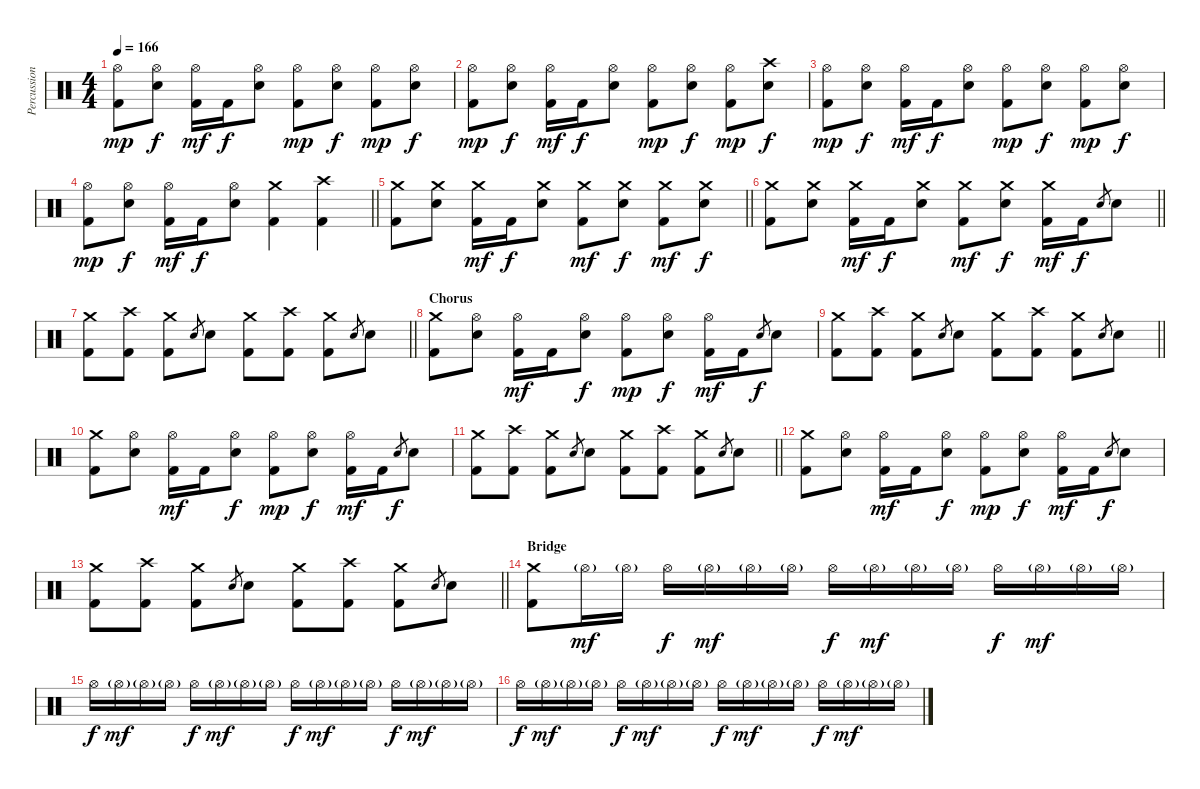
\track ("Percussion" "Percussion") {instrument percussion}
\staff {score}
\articulation defaults
\ts (4 4)
\tempo 166
\clef neutral
\ks c
("Hi-Hat (open)" "Kick (hit) 2").8{dy mp} ("Hi-Hat (open)" "Electric Snare (hit)").8{dy f} ("Hi-Hat (open)" "Kick (hit) 2").16{dy mf} "Kick (hit) 2".16{dy f} ("Hi-Hat (open)" "Electric Snare (hit)").8 ("Hi-Hat (open)" "Kick (hit) 2").8{dy mp} ("Hi-Hat (open)" "Electric Snare (hit)").8{dy f} ("Hi-Hat (open)" "Kick (hit) 2").8{dy mp} ("Hi-Hat (open)" "Electric Snare (hit)").8{dy f} |
("Hi-Hat (open)" "Kick (hit) 2").8{dy mp} ("Hi-Hat (open)" "Electric Snare (hit)").8{dy f} ("Hi-Hat (open)" "Kick (hit) 2").16{dy mf} "Kick (hit) 2".16{dy f} ("Hi-Hat (open)" "Electric Snare (hit)").8 ("Hi-Hat (open)" "Kick (hit) 2").8{dy mp} ("Hi-Hat (open)" "Electric Snare (hit)").8{dy f} ("Hi-Hat (open)" "Kick (hit) 2").8{dy mp} ("Crash high (hit)" "Electric Snare (hit)").8{dy f} |
("Hi-Hat (open)" "Kick (hit) 2").8{dy mp} ("Hi-Hat (open)" "Electric Snare (hit)").8{dy f} ("Hi-Hat (open)" "Kick (hit) 2").16{dy mf} "Kick (hit) 2".16{dy f} ("Hi-Hat (open)" "Electric Snare (hit)").8 ("Hi-Hat (open)" "Kick (hit) 2").8{dy mp} ("Hi-Hat (open)" "Electric Snare (hit)").8{dy f} ("Hi-Hat (open)" "Kick (hit) 2").8{dy mp} ("Hi-Hat (open)" "Electric Snare (hit)").8{dy f} |
\barLineRight lightlight
("Hi-Hat (open)" "Kick (hit) 2").8{dy mp} ("Hi-Hat (open)" "Electric Snare (hit)").8{dy f} ("Hi-Hat (open)" "Kick (hit) 2").16{dy mf} "Kick (hit) 2".16{dy f} ("Hi-Hat (open)" "Electric Snare (hit)").8 ("Crash medium (hit)" "Kick (hit) 2").4 ("Crash high (hit)" "Kick (hit) 2").4 |
\barLineRight lightlight
("Crash medium (hit)" "Kick (hit) 2").8 ("Crash medium (hit)" "Electric Snare (hit)").8 ("Crash medium (hit)" "Kick (hit) 2").16{dy mf} "Kick (hit) 2".16{dy f} ("Crash medium (hit)" "Electric Snare (hit)").8 ("Crash medium (hit)" "Kick (hit) 2").8{dy mf} ("Crash medium (hit)" "Electric Snare (hit)").8{dy f} ("Crash medium (hit)" "Kick (hit) 2").8{dy mf} ("Crash medium (hit)" "Electric Snare (hit)").8{dy f} |
\barLineRight lightlight
("Crash medium (hit)" "Kick (hit) 2").8 ("Crash medium (hit)" "Electric Snare (hit)").8 ("Crash medium (hit)" "Kick (hit) 2").16{dy mf} "Kick (hit) 2".16{dy f} ("Crash medium (hit)" "Electric Snare (hit)").8 ("Crash medium (hit)" "Kick (hit) 2").8{dy mf} ("Crash medium (hit)" "Electric Snare (hit)").8{dy f} ("Crash medium (hit)" "Kick (hit) 2").16{dy mf} "Kick (hit) 2".16{dy f} "Electric Snare (hit)".8{gr} "Electric Snare (hit)".8 |
\barLineRight lightlight
("Crash medium (hit)" "Kick (hit) 2").8 ("Crash high (hit)" "Kick (hit) 2").8 ("Crash medium (hit)" "Kick (hit) 2").8 "Electric Snare (hit)".8{gr} "Electric Snare (hit)".8 ("Crash medium (hit)" "Kick (hit) 2").8 ("Crash high (hit)" "Kick (hit) 2").8 ("Crash medium (hit)" "Kick (hit) 2").8 "Electric Snare (hit)".8{gr} "Electric Snare (hit)".8 |
\section ("" "Chorus")
("Crash medium (hit)" "Kick (hit) 2").8 ("Hi-Hat (open)" "Electric Snare (hit)").8 ("Hi-Hat (open)" "Kick (hit) 2").16{dy mf} "Kick (hit) 2".16 ("Hi-Hat (open)" "Electric Snare (hit)").8{dy f} ("Hi-Hat (open)" "Kick (hit) 2").8{dy mp} ("Hi-Hat (open)" "Electric Snare (hit)").8{dy f} ("Hi-Hat (open)" "Kick (hit) 2").16{dy mf} "Kick (hit) 2".16 "Electric Snare (hit)".8{gr dy f} "Electric Snare (hit)".8 |
\barLineRight lightlight
("Crash medium (hit)" "Kick (hit) 2").8 ("Crash high (hit)" "Kick (hit) 2").8 ("Crash medium (hit)" "Kick (hit) 2").8 "Electric Snare (hit)".8{gr} "Electric Snare (hit)".8 ("Crash medium (hit)" "Kick (hit) 2").8 ("Crash high (hit)" "Kick (hit) 2").8 ("Crash medium (hit)" "Kick (hit) 2").8 "Electric Snare (hit)".8{gr} "Electric Snare (hit)".8 |
("Crash medium (hit)" "Kick (hit) 2").8 ("Hi-Hat (open)" "Electric Snare (hit)").8 ("Hi-Hat (open)" "Kick (hit) 2").16{dy mf} "Kick (hit) 2".16 ("Hi-Hat (open)" "Electric Snare (hit)").8{dy f} ("Hi-Hat (open)" "Kick (hit) 2").8{dy mp} ("Hi-Hat (open)" "Electric Snare (hit)").8{dy f} ("Hi-Hat (open)" "Kick (hit) 2").16{dy mf} "Kick (hit) 2".16 "Electric Snare (hit)".8{gr dy f} "Electric Snare (hit)".8 |
\barLineRight lightlight
("Crash medium (hit)" "Kick (hit) 2").8 ("Crash high (hit)" "Kick (hit) 2").8 ("Crash medium (hit)" "Kick (hit) 2").8 "Electric Snare (hit)".8{gr} "Electric Snare (hit)".8 ("Crash medium (hit)" "Kick (hit) 2").8 ("Crash high (hit)" "Kick (hit) 2").8 ("Crash medium (hit)" "Kick (hit) 2").8 "Electric Snare (hit)".8{gr} "Electric Snare (hit)".8 |
("Crash medium (hit)" "Kick (hit) 2").8 ("Hi-Hat (open)" "Electric Snare (hit)").8 ("Hi-Hat (open)" "Kick (hit) 2").16{dy mf} "Kick (hit) 2".16 ("Hi-Hat (open)" "Electric Snare (hit)").8{dy f} ("Hi-Hat (open)" "Kick (hit) 2").8{dy mp} ("Hi-Hat (open)" "Electric Snare (hit)").8{dy f} ("Hi-Hat (open)" "Kick (hit) 2").16{dy mf} "Kick (hit) 2".16 "Electric Snare (hit)".8{gr dy f} "Electric Snare (hit)".8 |
\barLineRight lightlight
("Crash medium (hit)" "Kick (hit) 2").8 ("Crash high (hit)" "Kick (hit) 2").8 ("Crash medium (hit)" "Kick (hit) 2").8 "Electric Snare (hit)".8{gr} "Electric Snare (hit)".8 ("Crash medium (hit)" "Kick (hit) 2").8 ("Crash high (hit)" "Kick (hit) 2").8 ("Crash medium (hit)" "Kick (hit) 2").8 "Electric Snare (hit)".8{gr} "Electric Snare (hit)".8 |
\section ("" "Bridge")
("Crash medium (hit)" "Kick (hit) 2").8 "Hi-Hat (open)"{g}.16{dy mf} "Hi-Hat (open)"{g}.16 "Hi-Hat (open)".16{dy f} "Hi-Hat (open)"{g}.16{dy mf} "Hi-Hat (open)"{g}.16 "Hi-Hat (open)"{g}.16 "Hi-Hat (open)".16{dy f} "Hi-Hat (open)"{g}.16{dy mf} "Hi-Hat (open)"{g}.16 "Hi-Hat (open)"{g}.16 "Hi-Hat (open)".16{dy f} "Hi-Hat (open)"{g}.16{dy mf} "Hi-Hat (open)"{g}.16 "Hi-Hat (open)"{g}.16 |
"Hi-Hat (open)".16{dy f} "Hi-Hat (open)"{g}.16{dy mf} "Hi-Hat (open)"{g}.16 "Hi-Hat (open)"{g}.16 "Hi-Hat (open)".16{dy f} "Hi-Hat (open)"{g}.16{dy mf} "Hi-Hat (open)"{g}.16 "Hi-Hat (open)"{g}.16 "Hi-Hat (open)".16{dy f} "Hi-Hat (open)"{g}.16{dy mf} "Hi-Hat (open)"{g}.16 "Hi-Hat (open)"{g}.16 "Hi-Hat (open)".16{dy f} "Hi-Hat (open)"{g}.16{dy mf} "Hi-Hat (open)"{g}.16 "Hi-Hat (open)"{g}.16 |
"Hi-Hat (open)".16{dy f} "Hi-Hat (open)"{g}.16{dy mf} "Hi-Hat (open)"{g}.16 "Hi-Hat (open)"{g}.16 "Hi-Hat (open)".16{dy f} "Hi-Hat (open)"{g}.16{dy mf} "Hi-Hat (open)"{g}.16 "Hi-Hat (open)"{g}.16 "Hi-Hat (open)".16{dy f} "Hi-Hat (open)"{g}.16{dy mf} "Hi-Hat (open)"{g}.16 "Hi-Hat (open)"{g}.16 "Hi-Hat (open)".16{dy f} "Hi-Hat (open)"{g}.16{dy mf} "Hi-Hat (open)"{g}.16 "Hi-Hat (open)"{g}.16
